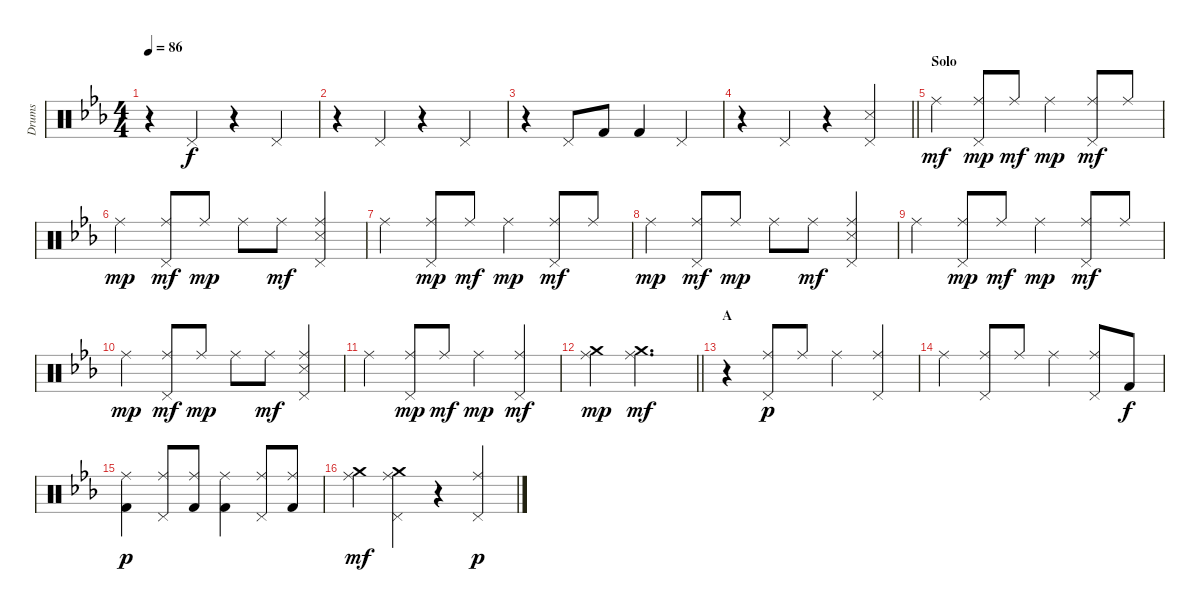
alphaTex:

\track ("Drums" "Drums") {instrument percussion}
\staff {score}
\articulation defaults
\ts (4 4)
\tempo 86
\clef neutral
\ks eb
r.4{dy f} "Pedal Hi-Hat (hit)".4 r.4 "Pedal Hi-Hat (hit)".4 |
r.4 "Pedal Hi-Hat (hit)".4 r.4 "Pedal Hi-Hat (hit)".4 |
r.4 "Pedal Hi-Hat (hit)".8 "Kick (hit) 2".8 "Kick (hit) 2".4 "Pedal Hi-Hat (hit)".4 |
\barLineRight lightlight
r.4 "Pedal Hi-Hat (hit)".4 r.4 ("Pedal Hi-Hat (hit)" "Snare (side stick) 3").4 |
\section ("" "Solo")
"Ride (middle)".4{dy mf} ("Ride (middle)" "Pedal Hi-Hat (hit)").8{dy mp} "Ride (middle)".8{dy mf} "Ride (middle)".4{dy mp} ("Ride (middle)" "Pedal Hi-Hat (hit)").8{dy mf} "Ride (middle)".8 |
"Ride (middle)".4{dy mp} ("Ride (middle)" "Pedal Hi-Hat (hit)").8{dy mf} "Ride (middle)".8{dy mp} "Ride (middle)".8 "Ride (middle)".8{dy mf} ("Ride (middle)" "Pedal Hi-Hat (hit)" "Snare (side stick) 3").4 |
"Ride (middle)".4 ("Ride (middle)" "Pedal Hi-Hat (hit)").8{dy mp} "Ride (middle)".8{dy mf} "Ride (middle)".4{dy mp} ("Ride (middle)" "Pedal Hi-Hat (hit)").8{dy mf} "Ride (middle)".8 |
"Ride (middle)".4{dy mp} ("Ride (middle)" "Pedal Hi-Hat (hit)").8{dy mf} "Ride (middle)".8{dy mp} "Ride (middle)".8 "Ride (middle)".8{dy mf} ("Ride (middle)" "Pedal Hi-Hat (hit)" "Snare (side stick) 3").4 |
"Ride (middle)".4 ("Ride (middle)" "Pedal Hi-Hat (hit)").8{dy mp} "Ride (middle)".8{dy mf} "Ride (middle)".4{dy mp} ("Ride (middle)" "Pedal Hi-Hat (hit)").8{dy mf} "Ride (middle)".8 |
"Ride (middle)".4{dy mp} ("Ride (middle)" "Pedal Hi-Hat (hit)").8{dy mf} "Ride (middle)".8{dy mp} "Ride (middle)".8 "Ride (middle)".8{dy mf} ("Ride (middle)" "Pedal Hi-Hat (hit)" "Snare (side stick) 3").4 |
"Ride (middle)".4 ("Ride (middle)" "Pedal Hi-Hat (hit)").8{dy mp} "Ride (middle)".8{dy mf} "Ride (middle)".4{dy mp} ("Ride (middle)" "Pedal Hi-Hat (hit)").4{dy mf} |
\barLineRight lightlight
("Crash medium (hit)" "Ride (middle)").4{dy mp} ("Crash medium (hit)" "Ride (middle)").2{d dy mf} |
\section ("" "A")
r.4 ("Ride (middle)" "Pedal Hi-Hat (hit)").8{dy p} "Ride (middle)".8 "Ride (middle)".4 ("Ride (middle)" "Pedal Hi-Hat (hit)").4 |
"Ride (middle)".4 ("Ride (middle)" "Pedal Hi-Hat (hit)").8 "Ride (middle)".8 "Ride (middle)".4 ("Ride (middle)" "Pedal Hi-Hat (hit)").8 "Kick (hit) 2".8{dy f} |
("Ride (middle)" "Kick (hit) 2").4{dy p} ("Ride (middle)" "Pedal Hi-Hat (hit)").8 ("Ride (middle)" "Kick (hit) 2").8 ("Ride (middle)" "Kick (hit) 2").4 ("Ride (middle)" "Pedal Hi-Hat (hit)").8 ("Ride (middle)" "Kick (hit) 2").8 |
("Crash medium (hit)" "Ride (middle)").4{dy mf} ("Crash medium (hit)" "Ride (middle)" "Pedal Hi-Hat (hit)").4 r.4 ("Ride (middle)" "Pedal Hi-Hat (hit)").4{dy p}
